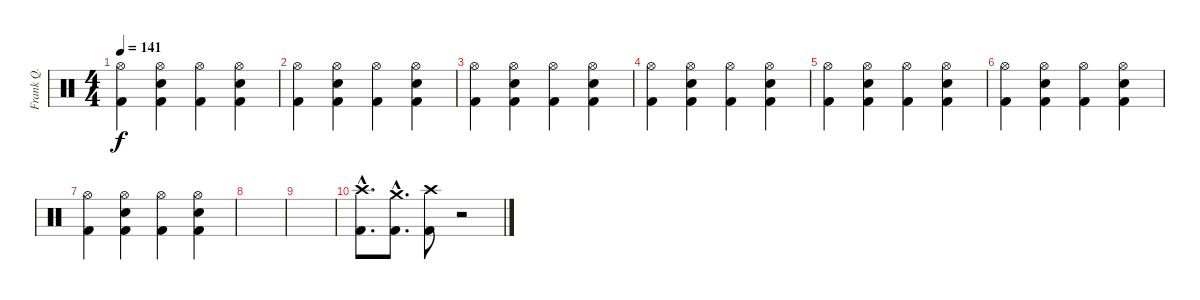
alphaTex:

\track ("Frank Q." "Frank Q.") {instrument percussion}
\staff {score}
\articulation defaults
\ts (4 4)
\tempo 141
\clef neutral
\ks c
("Hi-Hat (open)" "Kick (hit) 2").4{dy f} ("Hi-Hat (open)" "Electric Snare (hit)" "Kick (hit) 2").4 ("Hi-Hat (open)" "Kick (hit) 2").4 ("Hi-Hat (open)" "Electric Snare (hit)" "Kick (hit) 2").4 |
("Hi-Hat (open)" "Kick (hit) 2").4 ("Hi-Hat (open)" "Electric Snare (hit)" "Kick (hit) 2").4 ("Hi-Hat (open)" "Kick (hit) 2").4 ("Hi-Hat (open)" "Electric Snare (hit)" "Kick (hit) 2").4 |
("Hi-Hat (open)" "Kick (hit) 2").4 ("Hi-Hat (open)" "Electric Snare (hit)" "Kick (hit) 2").4 ("Hi-Hat (open)" "Kick (hit) 2").4 ("Hi-Hat (open)" "Electric Snare (hit)" "Kick (hit) 2").4 |
("Hi-Hat (open)" "Kick (hit) 2").4 ("Hi-Hat (open)" "Electric Snare (hit)" "Kick (hit) 2").4 ("Hi-Hat (open)" "Kick (hit) 2").4 ("Hi-Hat (open)" "Electric Snare (hit)" "Kick (hit) 2").4 |
("Hi-Hat (open)" "Kick (hit) 2").4 ("Hi-Hat (open)" "Electric Snare (hit)" "Kick (hit) 2").4 ("Hi-Hat (open)" "Kick (hit) 2").4 ("Hi-Hat (open)" "Electric Snare (hit)" "Kick (hit) 2").4 |
("Hi-Hat (open)" "Kick (hit) 2").4 ("Hi-Hat (open)" "Electric Snare (hit)" "Kick (hit) 2").4 ("Hi-Hat (open)" "Kick (hit) 2").4 ("Hi-Hat (open)" "Electric Snare (hit)" "Kick (hit) 2").4 |
("Hi-Hat (open)" "Kick (hit) 2").4 ("Hi-Hat (open)" "Electric Snare (hit)" "Kick (hit) 2").4 ("Hi-Hat (open)" "Kick (hit) 2").4 ("Hi-Hat (open)" "Electric Snare (hit)" "Kick (hit) 2").4 |
|
|
("Crash high (hit)"{hac} "Kick (hit) 2"{hac}).8{d} ("Crash medium (hit)"{hac} "Kick (hit) 2"{hac}).8{d} ("Crash high (hit)" "Kick (hit) 2").8 r.2
